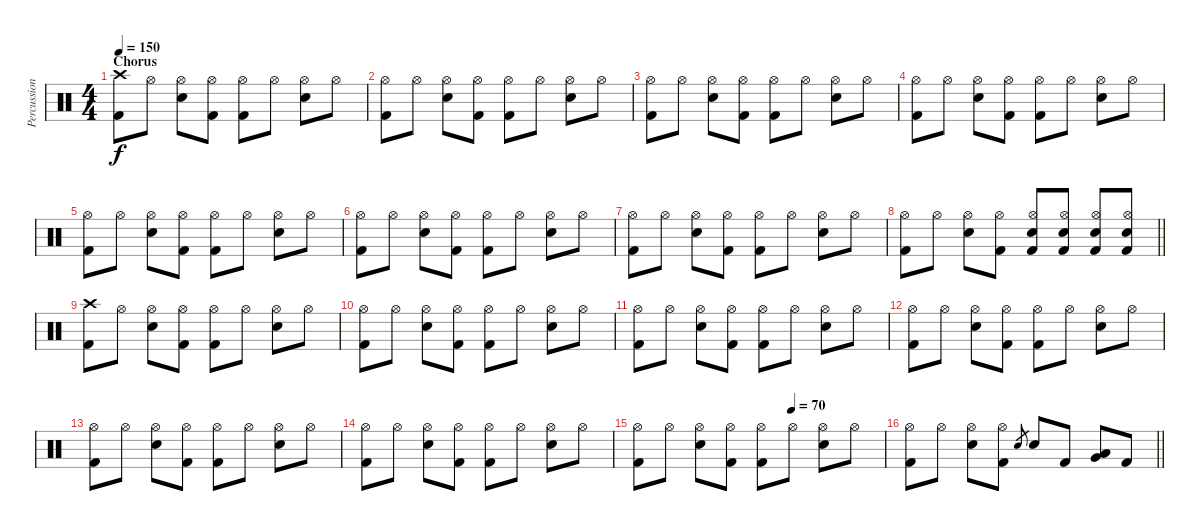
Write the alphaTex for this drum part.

\track ("Percussion" "Percussion") {instrument percussion}
\staff {score}
\articulation defaults
\ts (4 4)
\section ("" "Chorus")
\tempo 150
\clef neutral
\ks c
("Crash high (hit)" "Kick (hit) 2").8{dy f} "Hi-Hat (open)".8 ("Hi-Hat (open)" "Electric Snare (hit)").8 ("Hi-Hat (open)" "Kick (hit) 2").8 ("Hi-Hat (open)" "Kick (hit) 2").8 "Hi-Hat (open)".8 ("Hi-Hat (open)" "Electric Snare (hit)").8 "Hi-Hat (open)".8 |
("Hi-Hat (open)" "Kick (hit) 2").8 "Hi-Hat (open)".8 ("Hi-Hat (open)" "Electric Snare (hit)").8 ("Hi-Hat (open)" "Kick (hit) 2").8 ("Hi-Hat (open)" "Kick (hit) 2").8 "Hi-Hat (open)".8 ("Hi-Hat (open)" "Electric Snare (hit)").8 "Hi-Hat (open)".8 |
("Hi-Hat (open)" "Kick (hit) 2").8 "Hi-Hat (open)".8 ("Hi-Hat (open)" "Electric Snare (hit)").8 ("Hi-Hat (open)" "Kick (hit) 2").8 ("Hi-Hat (open)" "Kick (hit) 2").8 "Hi-Hat (open)".8 ("Hi-Hat (open)" "Electric Snare (hit)").8 "Hi-Hat (open)".8 |
("Hi-Hat (open)" "Kick (hit) 2").8 "Hi-Hat (open)".8 ("Hi-Hat (open)" "Electric Snare (hit)").8 ("Hi-Hat (open)" "Kick (hit) 2").8 ("Hi-Hat (open)" "Kick (hit) 2").8 "Hi-Hat (open)".8 ("Hi-Hat (open)" "Electric Snare (hit)").8 "Hi-Hat (open)".8 |
("Hi-Hat (open)" "Kick (hit) 2").8 "Hi-Hat (open)".8 ("Hi-Hat (open)" "Electric Snare (hit)").8 ("Hi-Hat (open)" "Kick (hit) 2").8 ("Hi-Hat (open)" "Kick (hit) 2").8 "Hi-Hat (open)".8 ("Hi-Hat (open)" "Electric Snare (hit)").8 "Hi-Hat (open)".8 |
("Hi-Hat (open)" "Kick (hit) 2").8 "Hi-Hat (open)".8 ("Hi-Hat (open)" "Electric Snare (hit)").8 ("Hi-Hat (open)" "Kick (hit) 2").8 ("Hi-Hat (open)" "Kick (hit) 2").8 "Hi-Hat (open)".8 ("Hi-Hat (open)" "Electric Snare (hit)").8 "Hi-Hat (open)".8 |
("Hi-Hat (open)" "Kick (hit) 2").8 "Hi-Hat (open)".8 ("Hi-Hat (open)" "Electric Snare (hit)").8 ("Hi-Hat (open)" "Kick (hit) 2").8 ("Hi-Hat (open)" "Kick (hit) 2").8 "Hi-Hat (open)".8 ("Hi-Hat (open)" "Electric Snare (hit)").8 "Hi-Hat (open)".8 |
\barLineRight lightlight
("Hi-Hat (open)" "Kick (hit) 2").8 "Hi-Hat (open)".8 ("Hi-Hat (open)" "Electric Snare (hit)").8 ("Hi-Hat (open)" "Kick (hit) 2").8 ("Hi-Hat (open)" "Electric Snare (hit)" "Kick (hit) 2").8 ("Hi-Hat (open)" "Electric Snare (hit)" "Kick (hit) 2").8 ("Hi-Hat (open)" "Electric Snare (hit)" "Kick (hit) 2").8 ("Hi-Hat (open)" "Electric Snare (hit)" "Kick (hit) 2").8 |
("Crash high (hit)" "Kick (hit) 2").8 "Hi-Hat (open)".8 ("Hi-Hat (open)" "Electric Snare (hit)").8 ("Hi-Hat (open)" "Kick (hit) 2").8 ("Hi-Hat (open)" "Kick (hit) 2").8 "Hi-Hat (open)".8 ("Hi-Hat (open)" "Electric Snare (hit)").8 "Hi-Hat (open)".8 |
("Hi-Hat (open)" "Kick (hit) 2").8 "Hi-Hat (open)".8 ("Hi-Hat (open)" "Electric Snare (hit)").8 ("Hi-Hat (open)" "Kick (hit) 2").8 ("Hi-Hat (open)" "Kick (hit) 2").8 "Hi-Hat (open)".8 ("Hi-Hat (open)" "Electric Snare (hit)").8 "Hi-Hat (open)".8 |
("Hi-Hat (open)" "Kick (hit) 2").8 "Hi-Hat (open)".8 ("Hi-Hat (open)" "Electric Snare (hit)").8 ("Hi-Hat (open)" "Kick (hit) 2").8 ("Hi-Hat (open)" "Kick (hit) 2").8 "Hi-Hat (open)".8 ("Hi-Hat (open)" "Electric Snare (hit)").8 "Hi-Hat (open)".8 |
("Hi-Hat (open)" "Kick (hit) 2").8 "Hi-Hat (open)".8 ("Hi-Hat (open)" "Electric Snare (hit)").8 ("Hi-Hat (open)" "Kick (hit) 2").8 ("Hi-Hat (open)" "Kick (hit) 2").8 "Hi-Hat (open)".8 ("Hi-Hat (open)" "Electric Snare (hit)").8 "Hi-Hat (open)".8 |
("Hi-Hat (open)" "Kick (hit) 2").8 "Hi-Hat (open)".8 ("Hi-Hat (open)" "Electric Snare (hit)").8 ("Hi-Hat (open)" "Kick (hit) 2").8 ("Hi-Hat (open)" "Kick (hit) 2").8 "Hi-Hat (open)".8 ("Hi-Hat (open)" "Electric Snare (hit)").8 "Hi-Hat (open)".8 |
("Hi-Hat (open)" "Kick (hit) 2").8 "Hi-Hat (open)".8 ("Hi-Hat (open)" "Electric Snare (hit)").8 ("Hi-Hat (open)" "Kick (hit) 2").8 ("Hi-Hat (open)" "Kick (hit) 2").8 "Hi-Hat (open)".8 ("Hi-Hat (open)" "Electric Snare (hit)").8 "Hi-Hat (open)".8 |
\tempo (70 0.625)
("Hi-Hat (open)" "Kick (hit) 2").8 "Hi-Hat (open)".8 ("Hi-Hat (open)" "Electric Snare (hit)").8 ("Hi-Hat (open)" "Kick (hit) 2").8 ("Hi-Hat (open)" "Kick (hit) 2").8 "Hi-Hat (open)".8 ("Hi-Hat (open)" "Electric Snare (hit)").8 "Hi-Hat (open)".8 |
\barLineRight lightlight
("Hi-Hat (open)" "Kick (hit) 2").8 "Hi-Hat (open)".8 ("Hi-Hat (open)" "Electric Snare (hit)").8 ("Hi-Hat (open)" "Kick (hit) 2").8 "Electric Snare (hit)".8{gr} "Electric Snare (hit)".8 "Kick (hit) 2".8 ("Very Low Tom (hit)" "Low Floor Tom (hit)").8 "Kick (hit) 2".8
